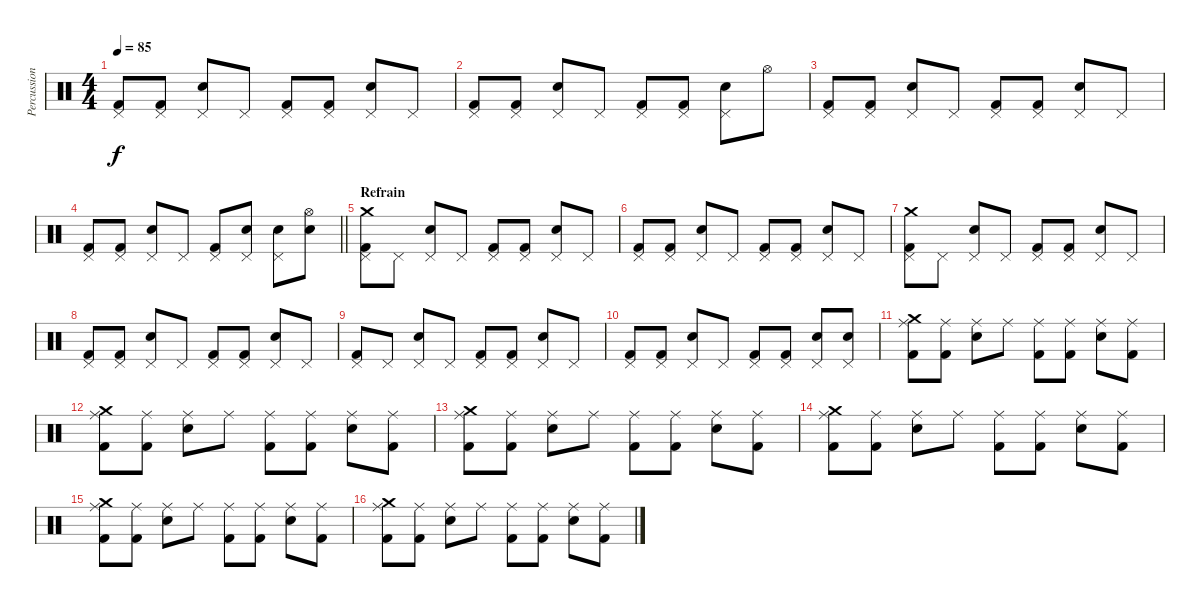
\track ("Percussions" "Percussion") {instrument percussion}
\staff {score}
\articulation defaults
\ts (4 4)
\tempo 85
\clef neutral
\ks c
("Pedal Hi-Hat (hit)" "Kick (hit) 2").8{dy f} ("Pedal Hi-Hat (hit)" "Kick (hit) 2").8 ("Pedal Hi-Hat (hit)" "Snare (hit) 2").8 "Pedal Hi-Hat (hit)".8 ("Pedal Hi-Hat (hit)" "Kick (hit) 2").8 ("Pedal Hi-Hat (hit)" "Kick (hit) 2").8 ("Pedal Hi-Hat (hit)" "Snare (hit) 2").8 "Pedal Hi-Hat (hit)".8 |
("Pedal Hi-Hat (hit)" "Kick (hit) 2").8 ("Pedal Hi-Hat (hit)" "Kick (hit) 2").8 ("Pedal Hi-Hat (hit)" "Snare (hit) 2").8 "Pedal Hi-Hat (hit)".8 ("Pedal Hi-Hat (hit)" "Kick (hit) 2").8 ("Pedal Hi-Hat (hit)" "Kick (hit) 2").8 ("Pedal Hi-Hat (hit)" "Snare (hit) 2").8 "Hi-Hat (open)".8 |
("Pedal Hi-Hat (hit)" "Kick (hit) 2").8 ("Pedal Hi-Hat (hit)" "Kick (hit) 2").8 ("Pedal Hi-Hat (hit)" "Snare (hit) 2").8 "Pedal Hi-Hat (hit)".8 ("Pedal Hi-Hat (hit)" "Kick (hit) 2").8 ("Pedal Hi-Hat (hit)" "Kick (hit) 2").8 ("Pedal Hi-Hat (hit)" "Snare (hit) 2").8 "Pedal Hi-Hat (hit)".8 |
\barLineRight lightlight
("Pedal Hi-Hat (hit)" "Kick (hit) 2").8 ("Pedal Hi-Hat (hit)" "Kick (hit) 2").8 ("Pedal Hi-Hat (hit)" "Snare (hit) 2").8 "Pedal Hi-Hat (hit)".8 ("Pedal Hi-Hat (hit)" "Kick (hit) 2").8 ("Pedal Hi-Hat (hit)" "Snare (hit) 2").8 ("Pedal Hi-Hat (hit)" "Snare (hit) 2").8 ("Hi-Hat (open)" "Snare (hit) 2").8 |
\section ("" "Refrain")
("Crash medium (hit)" "Pedal Hi-Hat (hit)" "Kick (hit) 2").8 "Pedal Hi-Hat (hit)".8 ("Pedal Hi-Hat (hit)" "Snare (hit) 2").8 "Pedal Hi-Hat (hit)".8 ("Pedal Hi-Hat (hit)" "Kick (hit) 2").8 ("Pedal Hi-Hat (hit)" "Kick (hit) 2").8 ("Pedal Hi-Hat (hit)" "Snare (hit) 2").8 "Pedal Hi-Hat (hit)".8 |
("Pedal Hi-Hat (hit)" "Kick (hit) 2").8 ("Pedal Hi-Hat (hit)" "Kick (hit) 2").8 ("Pedal Hi-Hat (hit)" "Snare (hit) 2").8 "Pedal Hi-Hat (hit)".8 ("Pedal Hi-Hat (hit)" "Kick (hit) 2").8 ("Pedal Hi-Hat (hit)" "Kick (hit) 2").8 ("Pedal Hi-Hat (hit)" "Snare (hit) 2").8 "Pedal Hi-Hat (hit)".8 |
("Crash medium (hit)" "Pedal Hi-Hat (hit)" "Kick (hit) 2").8 "Pedal Hi-Hat (hit)".8 ("Pedal Hi-Hat (hit)" "Snare (hit) 2").8 "Pedal Hi-Hat (hit)".8 ("Pedal Hi-Hat (hit)" "Kick (hit) 2").8 ("Pedal Hi-Hat (hit)" "Kick (hit) 2").8 ("Pedal Hi-Hat (hit)" "Snare (hit) 2").8 "Pedal Hi-Hat (hit)".8 |
("Pedal Hi-Hat (hit)" "Kick (hit) 2").8 ("Pedal Hi-Hat (hit)" "Kick (hit) 2").8 ("Pedal Hi-Hat (hit)" "Snare (hit) 2").8 "Pedal Hi-Hat (hit)".8 ("Pedal Hi-Hat (hit)" "Kick (hit) 2").8 ("Pedal Hi-Hat (hit)" "Kick (hit) 2").8 ("Pedal Hi-Hat (hit)" "Snare (hit) 2").8 "Pedal Hi-Hat (hit)".8 |
("Pedal Hi-Hat (hit)" "Kick (hit) 2").8 "Pedal Hi-Hat (hit)".8 ("Pedal Hi-Hat (hit)" "Snare (hit) 2").8 "Pedal Hi-Hat (hit)".8 ("Pedal Hi-Hat (hit)" "Kick (hit) 2").8 ("Pedal Hi-Hat (hit)" "Kick (hit) 2").8 ("Pedal Hi-Hat (hit)" "Snare (hit) 2").8 "Pedal Hi-Hat (hit)".8 |
("Pedal Hi-Hat (hit)" "Kick (hit) 2").8 ("Pedal Hi-Hat (hit)" "Kick (hit) 2").8 ("Pedal Hi-Hat (hit)" "Snare (hit) 2").8 "Pedal Hi-Hat (hit)".8 ("Pedal Hi-Hat (hit)" "Kick (hit) 2").8 ("Pedal Hi-Hat (hit)" "Kick (hit) 2").8 ("Pedal Hi-Hat (hit)" "Snare (hit) 2").8 ("Pedal Hi-Hat (hit)" "Snare (hit) 2").8 |
("Ride (middle)" "Crash medium (hit)" "Kick (hit) 2").8 ("Ride (middle)" "Kick (hit) 2").8 ("Ride (middle)" "Snare (hit) 2").8 "Ride (middle)".8 ("Ride (middle)" "Kick (hit) 2").8 ("Ride (middle)" "Kick (hit) 2").8 ("Ride (middle)" "Snare (hit) 2").8 ("Ride (middle)" "Kick (hit) 2").8 |
("Ride (middle)" "Crash medium (hit)" "Kick (hit) 2").8 ("Ride (middle)" "Kick (hit) 2").8 ("Ride (middle)" "Snare (hit) 2").8 "Ride (middle)".8 ("Ride (middle)" "Kick (hit) 2").8 ("Ride (middle)" "Kick (hit) 2").8 ("Ride (middle)" "Snare (hit) 2").8 ("Ride (middle)" "Kick (hit) 2").8 |
("Ride (middle)" "Crash medium (hit)" "Kick (hit) 2").8 ("Ride (middle)" "Kick (hit) 2").8 ("Ride (middle)" "Snare (hit) 2").8 "Ride (middle)".8 ("Ride (middle)" "Kick (hit) 2").8 ("Ride (middle)" "Kick (hit) 2").8 ("Ride (middle)" "Snare (hit) 2").8 ("Ride (middle)" "Kick (hit) 2").8 |
("Ride (middle)" "Crash medium (hit)" "Kick (hit) 2").8 ("Ride (middle)" "Kick (hit) 2").8 ("Ride (middle)" "Snare (hit) 2").8 "Ride (middle)".8 ("Ride (middle)" "Kick (hit) 2").8 ("Ride (middle)" "Kick (hit) 2").8 ("Ride (middle)" "Snare (hit) 2").8 ("Ride (middle)" "Kick (hit) 2").8 |
("Ride (middle)" "Crash medium (hit)" "Kick (hit) 2").8 ("Ride (middle)" "Kick (hit) 2").8 ("Ride (middle)" "Snare (hit) 2").8 "Ride (middle)".8 ("Ride (middle)" "Kick (hit) 2").8 ("Ride (middle)" "Kick (hit) 2").8 ("Ride (middle)" "Snare (hit) 2").8 ("Ride (middle)" "Kick (hit) 2").8 |
("Ride (middle)" "Crash medium (hit)" "Kick (hit) 2").8 ("Ride (middle)" "Kick (hit) 2").8 ("Ride (middle)" "Snare (hit) 2").8 "Ride (middle)".8 ("Ride (middle)" "Kick (hit) 2").8 ("Ride (middle)" "Kick (hit) 2").8 ("Ride (middle)" "Snare (hit) 2").8 ("Ride (middle)" "Kick (hit) 2").8
